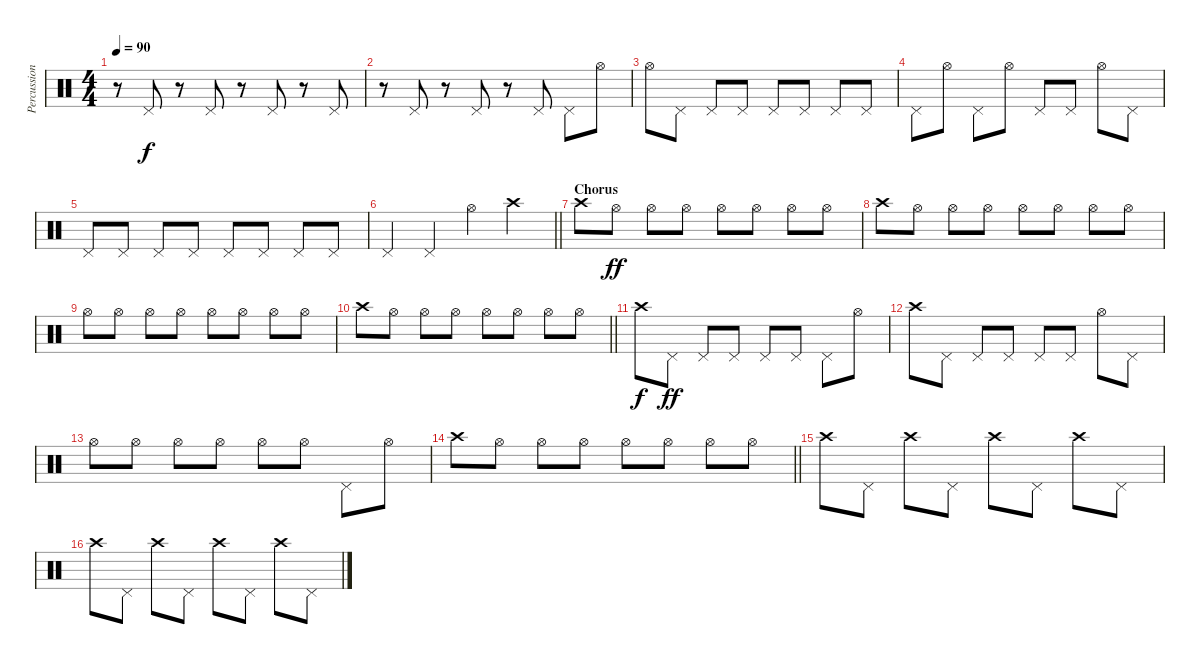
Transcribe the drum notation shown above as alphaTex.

\track ("Percussion" "Percussion") {instrument percussion}
\staff
\articulation defaults
\ts (4 4)
\tempo 90
\clef neutral
\ks c
r.8{dy f} "Pedal Hi-Hat (hit)".8 r.8 "Pedal Hi-Hat (hit)".8 r.8 "Pedal Hi-Hat (hit)".8 r.8 "Pedal Hi-Hat (hit)".8 |
r.8 "Pedal Hi-Hat (hit)".8 r.8 "Pedal Hi-Hat (hit)".8 r.8 "Pedal Hi-Hat (hit)".8 "Pedal Hi-Hat (hit)".8 "Hi-Hat (open)".8 |
"Hi-Hat (open)".8 "Pedal Hi-Hat (hit)".8 "Pedal Hi-Hat (hit)".8 "Pedal Hi-Hat (hit)".8 "Pedal Hi-Hat (hit)".8 "Pedal Hi-Hat (hit)".8 "Pedal Hi-Hat (hit)".8 "Pedal Hi-Hat (hit)".8 |
"Pedal Hi-Hat (hit)".8 "Hi-Hat (open)".8 "Pedal Hi-Hat (hit)".8 "Hi-Hat (open)".8 "Pedal Hi-Hat (hit)".8 "Pedal Hi-Hat (hit)".8 "Hi-Hat (open)".8 "Pedal Hi-Hat (hit)".8 |
"Pedal Hi-Hat (hit)".8 "Pedal Hi-Hat (hit)".8 "Pedal Hi-Hat (hit)".8 "Pedal Hi-Hat (hit)".8 "Pedal Hi-Hat (hit)".8 "Pedal Hi-Hat (hit)".8 "Pedal Hi-Hat (hit)".8 "Pedal Hi-Hat (hit)".8 |
\barLineRight lightlight "Pedal Hi-Hat (hit)".4 "Pedal Hi-Hat (hit)".4 "Hi-Hat (open)".4 "Crash high (hit)".4
|
\section ("" "Chorus")
"Crash high (hit)".8 "Hi-Hat (open)".8{dy ff} "Hi-Hat (open)".8 "Hi-Hat (open)".8 "Hi-Hat (open)".8 "Hi-Hat (open)".8 "Hi-Hat (open)".8 "Hi-Hat (open)".8 |
"Crash high (hit)".8 "Hi-Hat (open)".8 "Hi-Hat (open)".8 "Hi-Hat (open)".8 "Hi-Hat (open)".8 "Hi-Hat (open)".8 "Hi-Hat (open)".8 "Hi-Hat (open)".8 |
"Hi-Hat (open)".8 "Hi-Hat (open)".8 "Hi-Hat (open)".8 "Hi-Hat (open)".8 "Hi-Hat (open)".8 "Hi-Hat (open)".8 "Hi-Hat (open)".8 "Hi-Hat (open)".8 |
\barLineRight lightlight "Crash high (hit)".8 "Hi-Hat (open)".8 "Hi-Hat (open)".8 "Hi-Hat (open)".8 "Hi-Hat (open)".8 "Hi-Hat (open)".8 "Hi-Hat (open)".8 "Hi-Hat (open)".8
|
"Crash high (hit)".8{dy f} "Pedal Hi-Hat (hit)".8{dy ff} "Pedal Hi-Hat (hit)".8 "Pedal Hi-Hat (hit)".8 "Pedal Hi-Hat (hit)".8 "Pedal Hi-Hat (hit)".8 "Pedal Hi-Hat (hit)".8 "Hi-Hat (open)".8 |
"Crash high (hit)".8 "Pedal Hi-Hat (hit)".8 "Pedal Hi-Hat (hit)".8 "Pedal Hi-Hat (hit)".8 "Pedal Hi-Hat (hit)".8 "Pedal Hi-Hat (hit)".8 "Hi-Hat (open)".8 "Pedal Hi-Hat (hit)".8 |
"Hi-Hat (open)".8 "Hi-Hat (open)".8 "Hi-Hat (open)".8 "Hi-Hat (open)".8 "Hi-Hat (open)".8 "Hi-Hat (open)".8 "Pedal Hi-Hat (hit)".8 "Hi-Hat (open)".8 |
\barLineRight lightlight "Crash high (hit)".8 "Hi-Hat (open)".8 "Hi-Hat (open)".8 "Hi-Hat (open)".8 "Hi-Hat (open)".8 "Hi-Hat (open)".8 "Hi-Hat (open)".8 "Hi-Hat (open)".8
|
"Crash high (hit)".8 "Pedal Hi-Hat (hit)".8 "Crash high (hit)".8 "Pedal Hi-Hat (hit)".8 "Crash high (hit)".8 "Pedal Hi-Hat (hit)".8 "Crash high (hit)".8 "Pedal Hi-Hat (hit)".8 |
"Crash high (hit)".8 "Pedal Hi-Hat (hit)".8 "Crash high (hit)".8 "Pedal Hi-Hat (hit)".8 "Crash high (hit)".8 "Pedal Hi-Hat (hit)".8 "Crash high (hit)".8 "Pedal Hi-Hat (hit)".8
